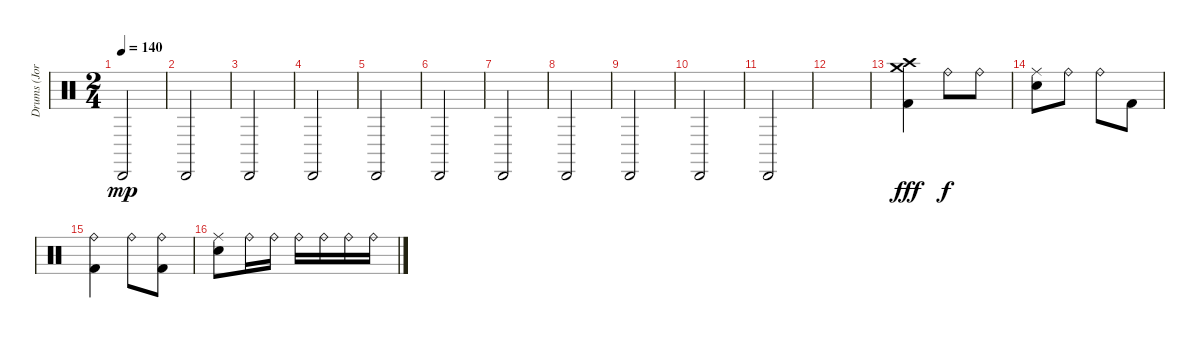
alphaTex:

\track ("Drums (Jordan Hastings)" "Drums (Jor") {instrument percussion}
\staff {score}
\articulation defaults
\ts (2 4)
\tempo 140
\clef neutral
\ks c "Cabasa (hit)".2{dy mp}
|
"Cabasa (hit)".2 |
"Cabasa (hit)".2 |
"Cabasa (hit)".2 |
"Cabasa (hit)".2 |
"Cabasa (hit)".2 |
"Cabasa (hit)".2 |
"Cabasa (hit)".2 |
"Cabasa (hit)".2 |
"Cabasa (hit)".2 |
"Cabasa (hit)".2 |
|
("Crash medium (hit)" "Crash high (hit)" "Kick (hit) 2").4{dy fff} "Ride (bell)".8{dy f} "Ride (bell)".8 |
("Ride (middle)" "Electric Snare (hit)").8 "Ride (bell)".8 "Ride (bell)".8 "Kick (hit) 2".8 |
("Ride (bell)" "Kick (hit) 2").4 "Ride (bell)".8 ("Ride (bell)" "Kick (hit) 2").8 |
("Ride (middle)" "Electric Snare (hit)").8 "Ride (bell)".16 "Ride (bell)".16 "Ride (bell)".16 "Ride (bell)".16 "Ride (bell)".16 "Ride (bell)".16
